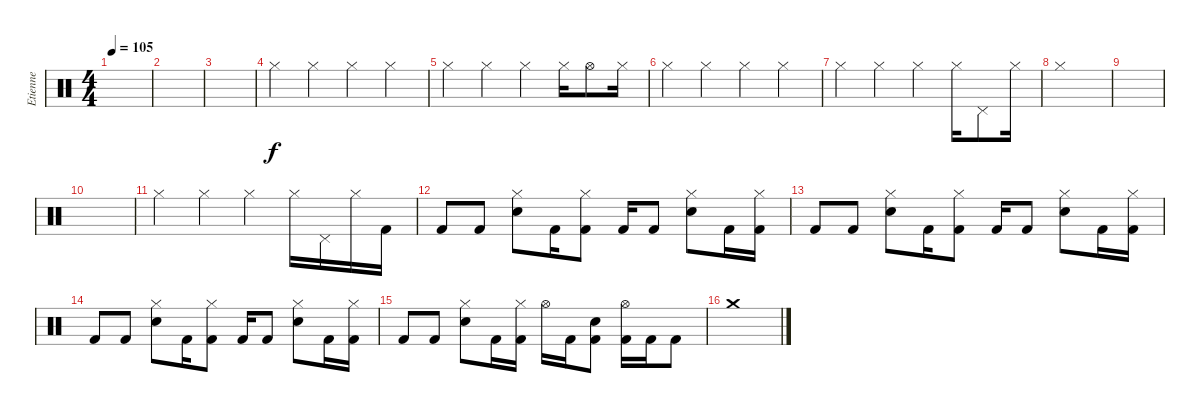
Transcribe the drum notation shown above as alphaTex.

\track ("Etienne" "Etienne") {instrument percussion}
\staff {score}
\articulation defaults
\ts (4 4)
\tempo 105
\clef neutral
\ks c
|
|
|
"Hi-Hat (closed)".4 "Hi-Hat (closed)".4 "Hi-Hat (closed)".4 "Hi-Hat (closed)".4 |
"Hi-Hat (closed)".4 "Hi-Hat (closed)".4 "Hi-Hat (closed)".4 "Hi-Hat (closed)".16 "Hi-Hat (open)".8 "Hi-Hat (closed)".16 |
"Hi-Hat (closed)".4 "Hi-Hat (closed)".4 "Hi-Hat (closed)".4 "Hi-Hat (closed)".4 |
"Hi-Hat (closed)".4 "Hi-Hat (closed)".4 "Hi-Hat (closed)".4 "Hi-Hat (closed)".16 "Pedal Hi-Hat (hit)".8 "Hi-Hat (closed)".16 |
"Hi-Hat (closed)".1 |
|
|
"Hi-Hat (closed)".4 "Hi-Hat (closed)".4 "Hi-Hat (closed)".4 "Hi-Hat (closed)".16 "Pedal Hi-Hat (hit)".16 "Hi-Hat (closed)".16 "Kick (hit) 2".16 |
"Kick (hit) 2".8 "Kick (hit) 2".8 ("Electric Snare (hit)" "Hi-Hat (closed)").8 "Kick (hit) 2".16 ("Kick (hit) 2" "Hi-Hat (closed)").8 "Kick (hit) 2".16 "Kick (hit) 2".8 ("Electric Snare (hit)" "Hi-Hat (closed)").8 "Kick (hit) 2".16 ("Kick (hit) 2" "Hi-Hat (closed)").16 |
"Kick (hit) 2".8 "Kick (hit) 2".8 ("Electric Snare (hit)" "Hi-Hat (closed)").8 "Kick (hit) 2".16 ("Kick (hit) 2" "Hi-Hat (closed)").8 "Kick (hit) 2".16 "Kick (hit) 2".8 ("Electric Snare (hit)" "Hi-Hat (closed)").8 "Kick (hit) 2".16 ("Kick (hit) 2" "Hi-Hat (closed)").16 |
"Kick (hit) 2".8 "Kick (hit) 2".8 ("Electric Snare (hit)" "Hi-Hat (closed)").8 "Kick (hit) 2".16 ("Kick (hit) 2" "Hi-Hat (closed)").8 "Kick (hit) 2".16 "Kick (hit) 2".8 ("Electric Snare (hit)" "Hi-Hat (closed)").8 "Kick (hit) 2".16 ("Kick (hit) 2" "Hi-Hat (closed)").16 |
"Kick (hit) 2".8 "Kick (hit) 2".8 ("Electric Snare (hit)" "Hi-Hat (closed)").8 "Kick (hit) 2".16 ("Kick (hit) 2" "Hi-Hat (closed)").16 "Hi-Hat (open)".16 "Kick (hit) 2".16 ("Electric Snare (hit)" "Kick (hit) 2").8 ("Hi-Hat (open)" "Kick (hit) 2").16 "Kick (hit) 2".16 "Kick (hit) 2".8 |
"Crash medium (hit)".1
